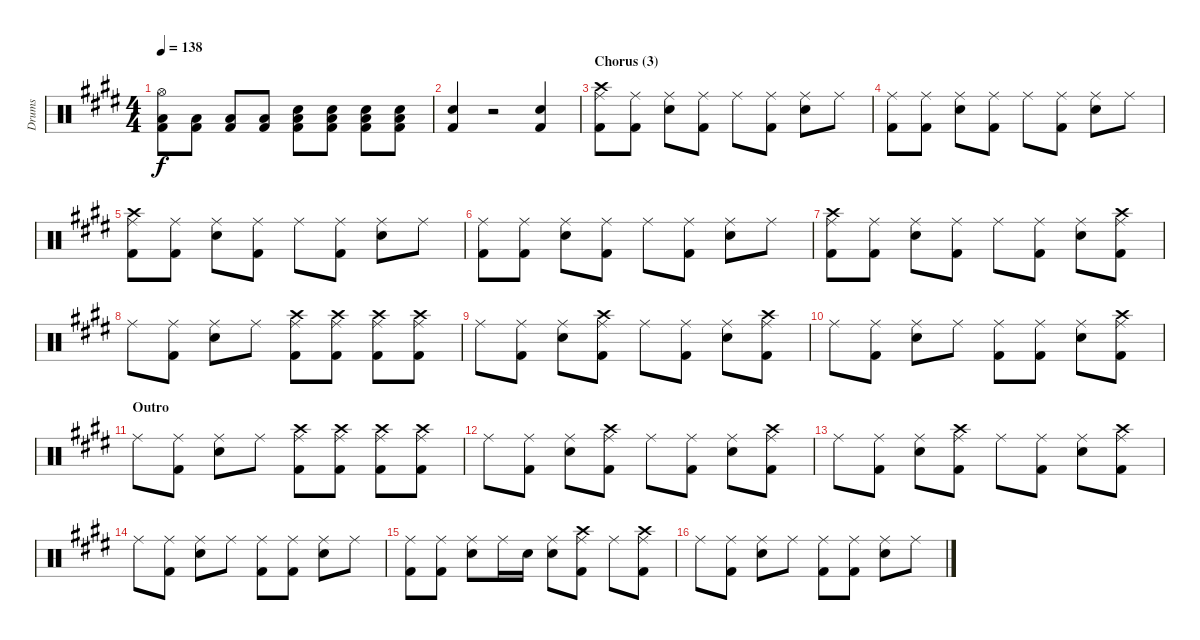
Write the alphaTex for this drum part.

\track ("Drums" "Drums") {instrument percussion}
\staff {score}
\articulation defaults
\ts (4 4)
\tempo 138
\clef neutral
\ks e
("Hi-Hat (open)" "Low Floor Tom (hit)" "Kick (hit) 2").8{dy f} ("Low Floor Tom (hit)" "Kick (hit) 2").8 ("Low Floor Tom (hit)" "Kick (hit) 2").8 ("Low Floor Tom (hit)" "Kick (hit) 2").8 ("Low Floor Tom (hit)" "Kick (hit) 2" "Snare (hit) 2").8 ("Low Floor Tom (hit)" "Kick (hit) 2" "Snare (hit) 2").8 ("Low Floor Tom (hit)" "Kick (hit) 2" "Snare (hit) 2").8 ("Low Floor Tom (hit)" "Kick (hit) 2" "Snare (hit) 2").8 |
("Snare (hit) 2" "Kick (hit) 2").4 r.2 ("Snare (hit) 2" "Kick (hit) 2").4 |
\section ("" "Chorus (3)")
("Crash high (hit)" "Kick (hit) 2" "Ride (middle)").8 ("Kick (hit) 2" "Ride (middle)").8 ("Snare (hit) 2" "Ride (middle)").8 ("Kick (hit) 2" "Ride (middle)").8 "Ride (middle)".8 ("Kick (hit) 2" "Ride (middle)").8 ("Snare (hit) 2" "Ride (middle)").8 "Ride (middle)".8 |
("Kick (hit) 2" "Ride (middle)").8 ("Kick (hit) 2" "Ride (middle)").8 ("Snare (hit) 2" "Ride (middle)").8 ("Kick (hit) 2" "Ride (middle)").8 "Ride (middle)".8 ("Kick (hit) 2" "Ride (middle)").8 ("Snare (hit) 2" "Ride (middle)").8 "Ride (middle)".8 |
("Crash high (hit)" "Kick (hit) 2" "Ride (middle)").8 ("Kick (hit) 2" "Ride (middle)").8 ("Snare (hit) 2" "Ride (middle)").8 ("Kick (hit) 2" "Ride (middle)").8 "Ride (middle)".8 ("Kick (hit) 2" "Ride (middle)").8 ("Snare (hit) 2" "Ride (middle)").8 "Ride (middle)".8 |
("Kick (hit) 2" "Ride (middle)").8 ("Kick (hit) 2" "Ride (middle)").8 ("Snare (hit) 2" "Ride (middle)").8 ("Kick (hit) 2" "Ride (middle)").8 "Ride (middle)".8 ("Kick (hit) 2" "Ride (middle)").8 ("Snare (hit) 2" "Ride (middle)").8 "Ride (middle)".8 |
("Crash high (hit)" "Kick (hit) 2" "Ride (middle)").8 ("Kick (hit) 2" "Ride (middle)").8 ("Snare (hit) 2" "Ride (middle)").8 ("Kick (hit) 2" "Ride (middle)").8 "Ride (middle)".8 ("Kick (hit) 2" "Ride (middle)").8 ("Snare (hit) 2" "Ride (middle)").8 ("Crash high (hit)" "Kick (hit) 2" "Ride (middle)").8 |
"Ride (middle)".8 ("Kick (hit) 2" "Ride (middle)").8 ("Snare (hit) 2" "Ride (middle)").8 "Ride (middle)".8 ("Crash high (hit)" "Kick (hit) 2" "Ride (middle)").8 ("Crash high (hit)" "Kick (hit) 2" "Ride (middle)").8 ("Crash high (hit)" "Kick (hit) 2" "Ride (middle)").8 ("Crash high (hit)" "Kick (hit) 2" "Ride (middle)").8 |
"Ride (middle)".8 ("Kick (hit) 2" "Ride (middle)").8 ("Snare (hit) 2" "Ride (middle)").8 ("Crash high (hit)" "Kick (hit) 2" "Ride (middle)").8 "Ride (middle)".8 ("Kick (hit) 2" "Ride (middle)").8 ("Snare (hit) 2" "Ride (middle)").8 ("Crash high (hit)" "Kick (hit) 2" "Ride (middle)").8 |
"Ride (middle)".8 ("Kick (hit) 2" "Ride (middle)").8 ("Snare (hit) 2" "Ride (middle)").8 "Ride (middle)".8 ("Kick (hit) 2" "Ride (middle)").8 ("Kick (hit) 2" "Ride (middle)").8 ("Snare (hit) 2" "Ride (middle)").8 ("Crash high (hit)" "Kick (hit) 2" "Ride (middle)").8 |
\section ("" "Outro")
"Ride (middle)".8 ("Kick (hit) 2" "Ride (middle)").8 ("Snare (hit) 2" "Ride (middle)").8 "Ride (middle)".8 ("Crash high (hit)" "Kick (hit) 2" "Ride (middle)").8 ("Crash high (hit)" "Kick (hit) 2" "Ride (middle)").8 ("Crash high (hit)" "Kick (hit) 2" "Ride (middle)").8 ("Crash high (hit)" "Kick (hit) 2" "Ride (middle)").8 |
"Ride (middle)".8 ("Kick (hit) 2" "Ride (middle)").8 ("Snare (hit) 2" "Ride (middle)").8 ("Crash high (hit)" "Kick (hit) 2" "Ride (middle)").8 "Ride (middle)".8 ("Kick (hit) 2" "Ride (middle)").8 ("Snare (hit) 2" "Ride (middle)").8 ("Crash high (hit)" "Kick (hit) 2" "Ride (middle)").8 |
"Ride (middle)".8 ("Kick (hit) 2" "Ride (middle)").8 ("Snare (hit) 2" "Ride (middle)").8 ("Crash high (hit)" "Kick (hit) 2" "Ride (middle)").8 "Ride (middle)".8 ("Kick (hit) 2" "Ride (middle)").8 ("Snare (hit) 2" "Ride (middle)").8 ("Crash high (hit)" "Kick (hit) 2" "Ride (middle)").8 |
"Ride (middle)".8 ("Kick (hit) 2" "Ride (middle)").8 ("Snare (hit) 2" "Ride (middle)").8 "Ride (middle)".8 ("Kick (hit) 2" "Ride (middle)").8 ("Kick (hit) 2" "Ride (middle)").8 ("Snare (hit) 2" "Ride (middle)").8 "Ride (middle)".8 |
("Kick (hit) 2" "Ride (middle)").8 ("Kick (hit) 2" "Ride (middle)").8 ("Snare (hit) 2" "Ride (middle)").8 "Ride (middle)".16 "Snare (hit) 2".16 ("Snare (hit) 2" "Ride (middle)").8 ("Crash high (hit)" "Kick (hit) 2" "Ride (middle)").8 "Ride (middle)".8 ("Crash high (hit)" "Kick (hit) 2" "Ride (middle)").8 |
"Ride (middle)".8 ("Kick (hit) 2" "Ride (middle)").8 ("Snare (hit) 2" "Ride (middle)").8 "Ride (middle)".8 ("Kick (hit) 2" "Ride (middle)").8 ("Kick (hit) 2" "Ride (middle)").8 ("Snare (hit) 2" "Ride (middle)").8 "Ride (middle)".8
